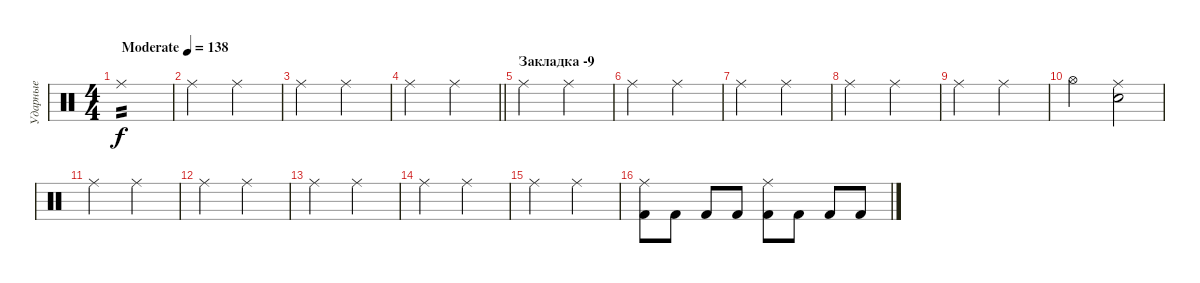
\track ("Ударные" "Ударные") {instrument percussion}
\staff {score}
\articulation defaults
\ts (4 4)
\tempo (138 "Moderate")
\clef neutral
\ks c "Ride (middle)".1{tp 2 dy f volume 14}
|
"Ride (middle)".2{volume 8} "Ride (middle)".2 |
"Ride (middle)".2 "Ride (middle)".2 |
\barLineRight lightlight "Ride (middle)".2 "Ride (middle)".2
|
\section ("" "Закладка -9")
"Ride (middle)".2 "Ride (middle)".2 |
"Ride (middle)".2 "Ride (middle)".2 |
"Ride (middle)".2 "Ride (middle)".2 |
"Ride (middle)".2 "Ride (middle)".2 |
"Ride (middle)".2 "Ride (middle)".2 |
"Hi-Hat (open)".2{volume 13} ("Ride (middle)" "Snare (hit)").2 |
"Ride (middle)".2 "Ride (middle)".2 |
"Ride (middle)".2 "Ride (middle)".2 |
"Ride (middle)".2 "Ride (middle)".2 |
"Ride (middle)".2{volume 16} "Ride (middle)".2 |
"Ride (middle)".2 "Ride (middle)".2 |
("Ride (middle)" "Kick (hit) 2").8 "Kick (hit) 2".8 "Kick (hit) 2".8 "Kick (hit) 2".8 ("Ride (middle)" "Kick (hit) 2").8 "Kick (hit) 2".8 "Kick (hit) 2".8 "Kick (hit) 2".8
